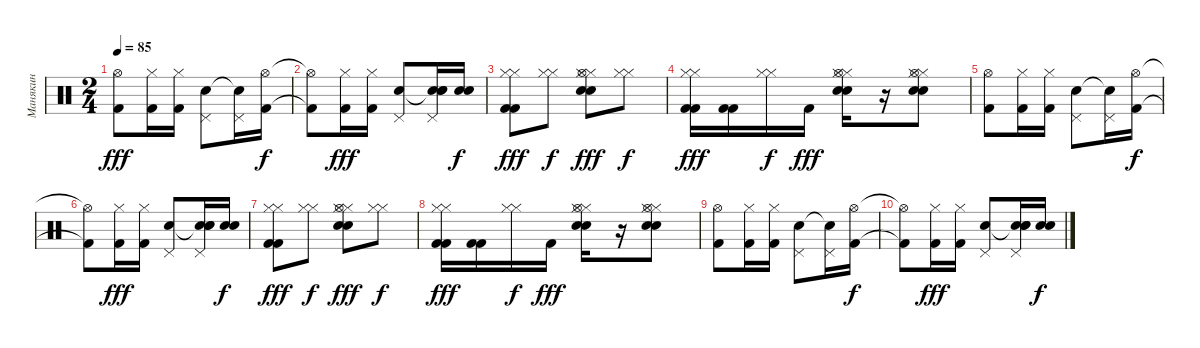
\track ("Манякин" "Манякин") {instrument percussion}
\staff {score}
\articulation defaults
\ts (2 4)
\tempo 85
\clef neutral
\ks c
("Kick (hit) 2" "Hi-Hat (open)").8{dy fff} ("Kick (hit) 2" "Hi-Hat (closed)").16 ("Kick (hit) 2" "Hi-Hat (closed)").16 ("Snare (hit) 2" "Pedal Hi-Hat (hit)").8 ("Snare (hit)"{t} "Pedal Hi-Hat (hit)").16 ("Kick (hit) 2" "Hi-Hat (open)").16{dy f} |
("Kick (hit) 2"{t} "Hi-Hat (open)"{t}).8 ("Kick (hit) 2" "Hi-Hat (closed)").16{dy fff} ("Kick (hit) 2" "Hi-Hat (closed)").16 ("Snare (hit) 2" "Pedal Hi-Hat (hit)").8 ("Snare (hit)"{t} "Pedal Hi-Hat (hit)" "Snare (hit) 2" "Snare (hit) 2").16 ("Snare (hit) 2" "Snare (hit) 2").16{dy f} |
("Kick (hit) 2" "Kick (hit) 2" "Hi-Hat (closed)" "Hi-Hat (closed)").8{dy fff} ("Hi-Hat (closed)" "Hi-Hat (closed)").8{dy f} ("Snare (hit) 2" "Snare (hit) 2" "Hi-Hat (closed)" "Hi-Hat (closed)" "Hi-Hat (open)").8{dy fff} ("Hi-Hat (closed)" "Hi-Hat (closed)").8{dy f} |
("Kick (hit) 2" "Kick (hit) 2" "Hi-Hat (closed)" "Hi-Hat (closed)").16{dy fff} ("Kick (hit) 2" "Kick (hit) 2").16 ("Hi-Hat (closed)" "Hi-Hat (closed)").16{dy f} "Kick (hit) 2".16{dy fff} ("Snare (hit) 2" "Snare (hit) 2" "Hi-Hat (closed)" "Hi-Hat (closed)" "Hi-Hat (open)").16 r.16 ("Snare (hit) 2" "Snare (hit) 2" "Hi-Hat (closed)" "Hi-Hat (closed)" "Hi-Hat (open)").8 |
("Kick (hit) 2" "Hi-Hat (open)").8 ("Kick (hit) 2" "Hi-Hat (closed)").16 ("Kick (hit) 2" "Hi-Hat (closed)").16 ("Snare (hit) 2" "Pedal Hi-Hat (hit)").8 ("Snare (hit)"{t} "Pedal Hi-Hat (hit)").16 ("Kick (hit) 2" "Hi-Hat (open)").16{dy f} |
("Kick (hit) 2"{t} "Hi-Hat (open)"{t}).8 ("Kick (hit) 2" "Hi-Hat (closed)").16{dy fff} ("Kick (hit) 2" "Hi-Hat (closed)").16 ("Snare (hit) 2" "Pedal Hi-Hat (hit)").8 ("Snare (hit)"{t} "Pedal Hi-Hat (hit)" "Snare (hit) 2" "Snare (hit) 2").16 ("Snare (hit) 2" "Snare (hit) 2").16{dy f} |
("Kick (hit) 2" "Kick (hit) 2" "Hi-Hat (closed)" "Hi-Hat (closed)").8{dy fff} ("Hi-Hat (closed)" "Hi-Hat (closed)").8{dy f} ("Snare (hit) 2" "Snare (hit) 2" "Hi-Hat (closed)" "Hi-Hat (closed)" "Hi-Hat (open)").8{dy fff} ("Hi-Hat (closed)" "Hi-Hat (closed)").8{dy f} |
("Kick (hit) 2" "Kick (hit) 2" "Hi-Hat (closed)" "Hi-Hat (closed)").16{dy fff} ("Kick (hit) 2" "Kick (hit) 2").16 ("Hi-Hat (closed)" "Hi-Hat (closed)").16{dy f} "Kick (hit) 2".16{dy fff} ("Snare (hit) 2" "Snare (hit) 2" "Hi-Hat (closed)" "Hi-Hat (closed)" "Hi-Hat (open)").16 r.16 ("Snare (hit) 2" "Snare (hit) 2" "Hi-Hat (closed)" "Hi-Hat (closed)" "Hi-Hat (open)").8 |
("Kick (hit) 2" "Hi-Hat (open)").8 ("Kick (hit) 2" "Hi-Hat (closed)").16 ("Kick (hit) 2" "Hi-Hat (closed)").16 ("Snare (hit) 2" "Pedal Hi-Hat (hit)").8 ("Snare (hit)"{t} "Pedal Hi-Hat (hit)").16 ("Kick (hit) 2" "Hi-Hat (open)").16{dy f} |
("Kick (hit) 2"{t} "Hi-Hat (open)"{t}).8 ("Kick (hit) 2" "Hi-Hat (closed)").16{dy fff} ("Kick (hit) 2" "Hi-Hat (closed)").16 ("Snare (hit) 2" "Pedal Hi-Hat (hit)").8 ("Snare (hit)"{t} "Pedal Hi-Hat (hit)" "Snare (hit) 2" "Snare (hit) 2").16 ("Snare (hit) 2" "Snare (hit) 2").16{dy f}
